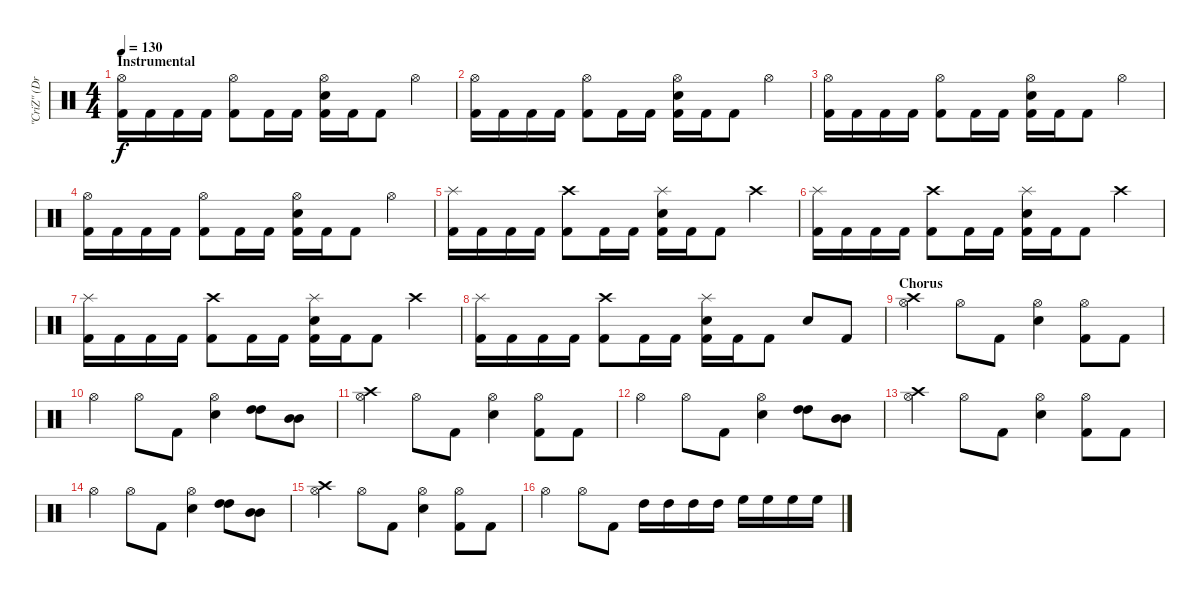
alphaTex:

\track ("\"CriZ\" (Drums/Percussion)" "\"CriZ\" (Dr") {instrument percussion}
\staff {score}
\articulation defaults
\ts (4 4)
\section ("" "Instrumental")
\tempo 130
\clef neutral
\ks c
("Hi-Hat (open)" "Kick (hit) 2").16{dy f volume 15} "Kick (hit) 2".16 "Kick (hit) 2".16 "Kick (hit) 2".16 ("Hi-Hat (open)" "Kick (hit) 2").8 "Kick (hit) 2".16 "Kick (hit) 2".16 ("Snare (hit) 2" "Hi-Hat (open)" "Kick (hit) 2").16 "Kick (hit) 2".16 "Kick (hit) 2".8 "Hi-Hat (open)".4 |
("Hi-Hat (open)" "Kick (hit) 2").16 "Kick (hit) 2".16 "Kick (hit) 2".16 "Kick (hit) 2".16 ("Hi-Hat (open)" "Kick (hit) 2").8 "Kick (hit) 2".16 "Kick (hit) 2".16 ("Snare (hit) 2" "Hi-Hat (open)" "Kick (hit) 2").16 "Kick (hit) 2".16 "Kick (hit) 2".8 "Hi-Hat (open)".4 |
("Hi-Hat (open)" "Kick (hit) 2").16 "Kick (hit) 2".16 "Kick (hit) 2".16 "Kick (hit) 2".16 ("Hi-Hat (open)" "Kick (hit) 2").8 "Kick (hit) 2".16 "Kick (hit) 2".16 ("Snare (hit) 2" "Hi-Hat (open)" "Kick (hit) 2").16 "Kick (hit) 2".16 "Kick (hit) 2".8 "Hi-Hat (open)".4 |
("Hi-Hat (open)" "Kick (hit) 2").16 "Kick (hit) 2".16 "Kick (hit) 2".16 "Kick (hit) 2".16 ("Hi-Hat (open)" "Kick (hit) 2").8 "Kick (hit) 2".16 "Kick (hit) 2".16 ("Snare (hit) 2" "Hi-Hat (open)" "Kick (hit) 2").16 "Kick (hit) 2".16 "Kick (hit) 2".8 "Hi-Hat (open)".4 |
("Splash (hit)" "Kick (hit) 2").16 "Kick (hit) 2".16 "Kick (hit) 2".16 "Kick (hit) 2".16 ("Crash high (hit)" "Kick (hit) 2").8 "Kick (hit) 2".16 "Kick (hit) 2".16 ("Snare (hit) 2" "Splash (hit)" "Kick (hit) 2").16 "Kick (hit) 2".16 "Kick (hit) 2".8 "Crash high (hit)".4 |
("Splash (hit)" "Kick (hit) 2").16 "Kick (hit) 2".16 "Kick (hit) 2".16 "Kick (hit) 2".16 ("Crash high (hit)" "Kick (hit) 2").8 "Kick (hit) 2".16 "Kick (hit) 2".16 ("Snare (hit) 2" "Splash (hit)" "Kick (hit) 2").16 "Kick (hit) 2".16 "Kick (hit) 2".8 "Crash high (hit)".4 |
("Splash (hit)" "Kick (hit) 2").16 "Kick (hit) 2".16 "Kick (hit) 2".16 "Kick (hit) 2".16 ("Crash high (hit)" "Kick (hit) 2").8 "Kick (hit) 2".16 "Kick (hit) 2".16 ("Snare (hit) 2" "Splash (hit)" "Kick (hit) 2").16 "Kick (hit) 2".16 "Kick (hit) 2".8 "Crash high (hit)".4 |
("Splash (hit)" "Kick (hit) 2").16 "Kick (hit) 2".16 "Kick (hit) 2".16 "Kick (hit) 2".16 ("Crash high (hit)" "Kick (hit) 2").8 "Kick (hit) 2".16 "Kick (hit) 2".16 ("Snare (hit) 2" "Splash (hit)" "Kick (hit) 2").16 "Kick (hit) 2".16 "Kick (hit) 2".8 "Snare (hit) 2".8 "Kick (hit) 2".8 |
\section ("" "Chorus")
("Crash high (hit)" "Hi-Hat (open)").4 "Hi-Hat (open)".8 "Kick (hit) 2".8 ("Hi-Hat (open)" "Snare (hit) 2").4 ("Hi-Hat (open)" "Kick (hit) 2").8 "Kick (hit) 2".8 |
"Hi-Hat (open)".4 "Hi-Hat (open)".8 "Kick (hit) 2".8 ("Hi-Hat (open)" "Snare (hit) 2").4 ("High Tom (hit)" "High Tom (hit)").8 ("Mid Tom (hit)" "Mid Tom (hit)").8 |
("Crash high (hit)" "Hi-Hat (open)").4 "Hi-Hat (open)".8 "Kick (hit) 2".8 ("Hi-Hat (open)" "Snare (hit) 2").4 ("Hi-Hat (open)" "Kick (hit) 2").8 "Kick (hit) 2".8 |
"Hi-Hat (open)".4 "Hi-Hat (open)".8 "Kick (hit) 2".8 ("Hi-Hat (open)" "Snare (hit) 2").4 ("High Tom (hit)" "High Tom (hit)").8 ("Mid Tom (hit)" "Mid Tom (hit)").8 |
("Crash high (hit)" "Hi-Hat (open)").4 "Hi-Hat (open)".8 "Kick (hit) 2".8 ("Hi-Hat (open)" "Snare (hit) 2").4 ("Hi-Hat (open)" "Kick (hit) 2").8 "Kick (hit) 2".8 |
"Hi-Hat (open)".4 "Hi-Hat (open)".8 "Kick (hit) 2".8 ("Hi-Hat (open)" "Snare (hit) 2").4 ("High Tom (hit)" "High Tom (hit)").8 ("Mid Tom (hit)" "Mid Tom (hit)").8 |
("Crash high (hit)" "Hi-Hat (open)").4 "Hi-Hat (open)".8 "Kick (hit) 2".8 ("Hi-Hat (open)" "Snare (hit) 2").4 ("Hi-Hat (open)" "Kick (hit) 2").8 "Kick (hit) 2".8 |
"Hi-Hat (open)".4 "Hi-Hat (open)".8 "Kick (hit) 2".8 "High Tom (hit)".16 "High Tom (hit)".16 "High Tom (hit)".16 "High Tom (hit)".16 "High Floor Tom (hit)".16 "High Floor Tom (hit)".16 "High Floor Tom (hit)".16 "High Floor Tom (hit)".16
